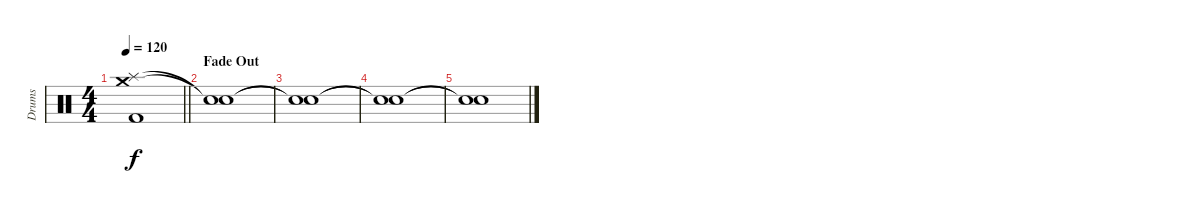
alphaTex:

\track ("Drums" "Drums") {instrument percussion}
\staff {score}
\articulation defaults
\ts (4 4)
\tempo 120
\clef neutral
\barLineRight lightlight
\ks c
("Crash medium (hit)" "Splash (hit)" "Kick (hit) 2").1{dy f} |
\section ("" "Fade Out")
("Snare (hit)"{t} "Snare (hit)"{t}).1{volume 0} |
("Snare (hit)"{t} "Snare (hit)"{t}).1 |
("Snare (hit)"{t} "Snare (hit)"{t}).1 |
("Snare (hit)"{t} "Snare (hit)"{t}).1
